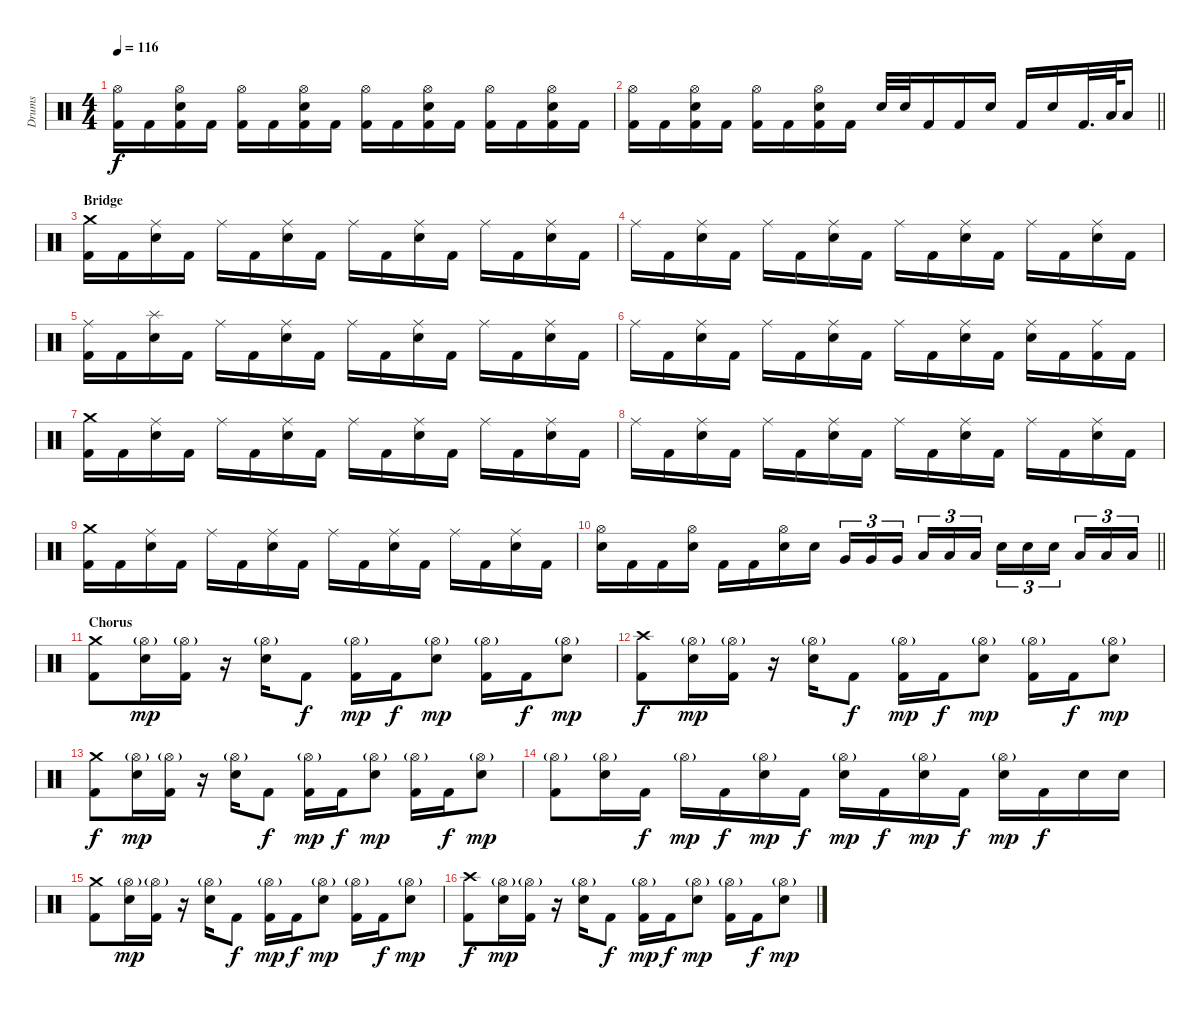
\track ("Drums" "Drums") {instrument percussion}
\staff {score}
\articulation defaults
\ts (4 4)
\tempo 116
\clef neutral
\ks c
("Hi-Hat (open)" "Kick (hit) 2").16{dy f} "Kick (hit) 2".16 ("Hi-Hat (open)" "Kick (hit) 2" "Electric Snare (hit)").16 "Kick (hit) 2".16 ("Hi-Hat (open)" "Kick (hit) 2").16 "Kick (hit) 2".16 ("Hi-Hat (open)" "Kick (hit) 2" "Electric Snare (hit)").16 "Kick (hit) 2".16 ("Hi-Hat (open)" "Kick (hit) 2").16 "Kick (hit) 2".16 ("Hi-Hat (open)" "Kick (hit) 2" "Electric Snare (hit)").16 "Kick (hit) 2".16 ("Hi-Hat (open)" "Kick (hit) 2").16 "Kick (hit) 2".16 ("Hi-Hat (open)" "Kick (hit) 2" "Electric Snare (hit)").16 "Kick (hit) 2".16 |
\barLineRight lightlight
("Hi-Hat (open)" "Kick (hit) 2").16 "Kick (hit) 2".16 ("Hi-Hat (open)" "Kick (hit) 2" "Electric Snare (hit)").16 "Kick (hit) 2".16 ("Hi-Hat (open)" "Kick (hit) 2").16 "Kick (hit) 2".16 ("Hi-Hat (open)" "Kick (hit) 2" "Electric Snare (hit)").16 "Kick (hit) 2".16 "Electric Snare (hit)".32 "Electric Snare (hit)".32 "Kick (hit) 2".16 "Kick (hit) 2".16 "Electric Snare (hit)".16 "Kick (hit) 2".16 "Electric Snare (hit)".16 "Kick (hit) 2".32{d} "Low Tom (hit)".64 "Low Tom (hit)".16 |
\section ("" "Bridge")
("Crash medium (hit)" "Kick (hit) 2").16 "Kick (hit) 2".16 ("Ride (middle)" "Electric Snare (hit)").16 "Kick (hit) 2".16 "Ride (middle)".16 "Kick (hit) 2".16 ("Ride (middle)" "Electric Snare (hit)").16 "Kick (hit) 2".16 "Ride (middle)".16 "Kick (hit) 2".16 ("Ride (middle)" "Electric Snare (hit)").16 "Kick (hit) 2".16 "Ride (middle)".16 "Kick (hit) 2".16 ("Ride (middle)" "Electric Snare (hit)").16 "Kick (hit) 2".16 |
"Ride (middle)".16 "Kick (hit) 2".16 ("Ride (middle)" "Electric Snare (hit)").16 "Kick (hit) 2".16 "Ride (middle)".16 "Kick (hit) 2".16 ("Ride (middle)" "Electric Snare (hit)").16 "Kick (hit) 2".16 "Ride (middle)".16 "Kick (hit) 2".16 ("Ride (middle)" "Electric Snare (hit)").16 "Kick (hit) 2".16 "Ride (middle)".16 "Kick (hit) 2".16 ("Ride (middle)" "Electric Snare (hit)").16 "Kick (hit) 2".16 |
("Ride (middle)" "Kick (hit) 2").16 "Kick (hit) 2".16 ("Splash (hit)" "Electric Snare (hit)").16 "Kick (hit) 2".16 "Ride (middle)".16 "Kick (hit) 2".16 ("Ride (middle)" "Electric Snare (hit)").16 "Kick (hit) 2".16 "Ride (middle)".16 "Kick (hit) 2".16 ("Ride (middle)" "Electric Snare (hit)").16 "Kick (hit) 2".16 "Ride (middle)".16 "Kick (hit) 2".16 ("Ride (middle)" "Electric Snare (hit)").16 "Kick (hit) 2".16 |
"Ride (middle)".16 "Kick (hit) 2".16 ("Ride (middle)" "Electric Snare (hit)").16 "Kick (hit) 2".16 "Ride (middle)".16 "Kick (hit) 2".16 ("Ride (middle)" "Electric Snare (hit)").16 "Kick (hit) 2".16 "Ride (middle)".16 "Kick (hit) 2".16 ("Ride (middle)" "Electric Snare (hit)").16 "Kick (hit) 2".16 ("Ride (middle)" "Electric Snare (hit)").16 "Kick (hit) 2".16 ("Ride (middle)" "Kick (hit) 2").16 "Kick (hit) 2".16 |
("Crash medium (hit)" "Kick (hit) 2").16 "Kick (hit) 2".16 ("Ride (middle)" "Electric Snare (hit)").16 "Kick (hit) 2".16 "Ride (middle)".16 "Kick (hit) 2".16 ("Ride (middle)" "Electric Snare (hit)").16 "Kick (hit) 2".16 "Ride (middle)".16 "Kick (hit) 2".16 ("Ride (middle)" "Electric Snare (hit)").16 "Kick (hit) 2".16 "Ride (middle)".16 "Kick (hit) 2".16 ("Ride (middle)" "Electric Snare (hit)").16 "Kick (hit) 2".16 |
"Ride (middle)".16 "Kick (hit) 2".16 ("Ride (middle)" "Electric Snare (hit)").16 "Kick (hit) 2".16 "Ride (middle)".16 "Kick (hit) 2".16 ("Ride (middle)" "Electric Snare (hit)").16 "Kick (hit) 2".16 "Ride (middle)".16 "Kick (hit) 2".16 ("Ride (middle)" "Electric Snare (hit)").16 "Kick (hit) 2".16 "Ride (middle)".16 "Kick (hit) 2".16 ("Ride (middle)" "Electric Snare (hit)").16 "Kick (hit) 2".16 |
("Crash medium (hit)" "Kick (hit) 2").16 "Kick (hit) 2".16 ("Ride (middle)" "Electric Snare (hit)").16 "Kick (hit) 2".16 "Ride (middle)".16 "Kick (hit) 2".16 ("Ride (middle)" "Electric Snare (hit)").16 "Kick (hit) 2".16 "Ride (middle)".16 "Kick (hit) 2".16 ("Ride (middle)" "Electric Snare (hit)").16 "Kick (hit) 2".16 "Ride (middle)".16 "Kick (hit) 2".16 ("Ride (middle)" "Electric Snare (hit)").16 "Kick (hit) 2".16 |
\barLineRight lightlight
("Hi-Hat (open)" "Electric Snare (hit)").16 "Kick (hit) 2".16 "Kick (hit) 2".16 ("Hi-Hat (open)" "Electric Snare (hit)").16 "Kick (hit) 2".16 "Kick (hit) 2".16 ("Hi-Hat (open)" "Electric Snare (hit)").16 "Electric Snare (hit)".16 "Very Low Tom (hit)".16{tu (3 2)} "Very Low Tom (hit)".16{tu (3 2)} "Very Low Tom (hit)".16{tu (3 2) beam splitsecondary} "Low Floor Tom (hit)".16{tu (3 2)} "Low Floor Tom (hit)".16{tu (3 2)} "Low Floor Tom (hit)".16{tu (3 2)} "Electric Snare (hit)".16{tu (3 2)} "Electric Snare (hit)".16{tu (3 2)} "Electric Snare (hit)".16{tu (3 2) beam splitsecondary} "Low Tom (hit)".16{tu (3 2)} "Low Tom (hit)".16{tu (3 2)} "Low Tom (hit)".16{tu (3 2)} |
\section ("" "Chorus")
("Crash medium (hit)" "Kick (hit) 2").8 ("Hi-Hat (open)"{g} "Electric Snare (hit)").16{dy mp} ("Hi-Hat (open)"{g} "Kick (hit) 2").16 r.16 ("Hi-Hat (open)"{g} "Electric Snare (hit)").16 "Kick (hit) 2".8{dy f} ("Hi-Hat (open)"{g} "Kick (hit) 2").16{dy mp} "Kick (hit) 2".16{dy f} ("Hi-Hat (open)"{g} "Electric Snare (hit)").8{dy mp} ("Hi-Hat (open)"{g} "Kick (hit) 2").16 "Kick (hit) 2".16{dy f} ("Hi-Hat (open)"{g} "Electric Snare (hit)").8{dy mp} |
("Crash high (hit)" "Kick (hit) 2").8{dy f} ("Hi-Hat (open)"{g} "Electric Snare (hit)").16{dy mp} ("Hi-Hat (open)"{g} "Kick (hit) 2").16 r.16 ("Hi-Hat (open)"{g} "Electric Snare (hit)").16 "Kick (hit) 2".8{dy f} ("Hi-Hat (open)"{g} "Kick (hit) 2").16{dy mp} "Kick (hit) 2".16{dy f} ("Hi-Hat (open)"{g} "Electric Snare (hit)").8{dy mp} ("Hi-Hat (open)"{g} "Kick (hit) 2").16 "Kick (hit) 2".16{dy f} ("Hi-Hat (open)"{g} "Electric Snare (hit)").8{dy mp} |
("Crash medium (hit)" "Kick (hit) 2").8{dy f} ("Hi-Hat (open)"{g} "Electric Snare (hit)").16{dy mp} ("Hi-Hat (open)"{g} "Kick (hit) 2").16 r.16 ("Hi-Hat (open)"{g} "Electric Snare (hit)").16 "Kick (hit) 2".8{dy f} ("Hi-Hat (open)"{g} "Kick (hit) 2").16{dy mp} "Kick (hit) 2".16{dy f} ("Hi-Hat (open)"{g} "Electric Snare (hit)").8{dy mp} ("Hi-Hat (open)"{g} "Kick (hit) 2").16 "Kick (hit) 2".16{dy f} ("Hi-Hat (open)"{g} "Electric Snare (hit)").8{dy mp} |
("Hi-Hat (open)"{g} "Kick (hit) 2").8 ("Hi-Hat (open)"{g} "Electric Snare (hit)").16 "Kick (hit) 2".16{dy f} "Hi-Hat (open)"{g}.16{dy mp} "Kick (hit) 2".16{dy f} ("Hi-Hat (open)"{g} "Electric Snare (hit)").16{dy mp} "Kick (hit) 2".16{dy f} ("Hi-Hat (open)"{g} "Electric Snare (hit)").16{dy mp} "Kick (hit) 2".16{dy f} ("Hi-Hat (open)"{g} "Electric Snare (hit)").16{dy mp} "Kick (hit) 2".16{dy f} ("Hi-Hat (open)"{g} "Electric Snare (hit)").16{dy mp} "Kick (hit) 2".16{dy f} "Electric Snare (hit)".16 "Electric Snare (hit)".16 |
("Crash medium (hit)" "Kick (hit) 2").8 ("Hi-Hat (open)"{g} "Electric Snare (hit)").16{dy mp} ("Hi-Hat (open)"{g} "Kick (hit) 2").16 r.16 ("Hi-Hat (open)"{g} "Electric Snare (hit)").16 "Kick (hit) 2".8{dy f} ("Hi-Hat (open)"{g} "Kick (hit) 2").16{dy mp} "Kick (hit) 2".16{dy f} ("Hi-Hat (open)"{g} "Electric Snare (hit)").8{dy mp} ("Hi-Hat (open)"{g} "Kick (hit) 2").16 "Kick (hit) 2".16{dy f} ("Hi-Hat (open)"{g} "Electric Snare (hit)").8{dy mp} |
("Crash high (hit)" "Kick (hit) 2").8{dy f} ("Hi-Hat (open)"{g} "Electric Snare (hit)").16{dy mp} ("Hi-Hat (open)"{g} "Kick (hit) 2").16 r.16 ("Hi-Hat (open)"{g} "Electric Snare (hit)").16 "Kick (hit) 2".8{dy f} ("Hi-Hat (open)"{g} "Kick (hit) 2").16{dy mp} "Kick (hit) 2".16{dy f} ("Hi-Hat (open)"{g} "Electric Snare (hit)").8{dy mp} ("Hi-Hat (open)"{g} "Kick (hit) 2").16 "Kick (hit) 2".16{dy f} ("Hi-Hat (open)"{g} "Electric Snare (hit)").8{dy mp}
